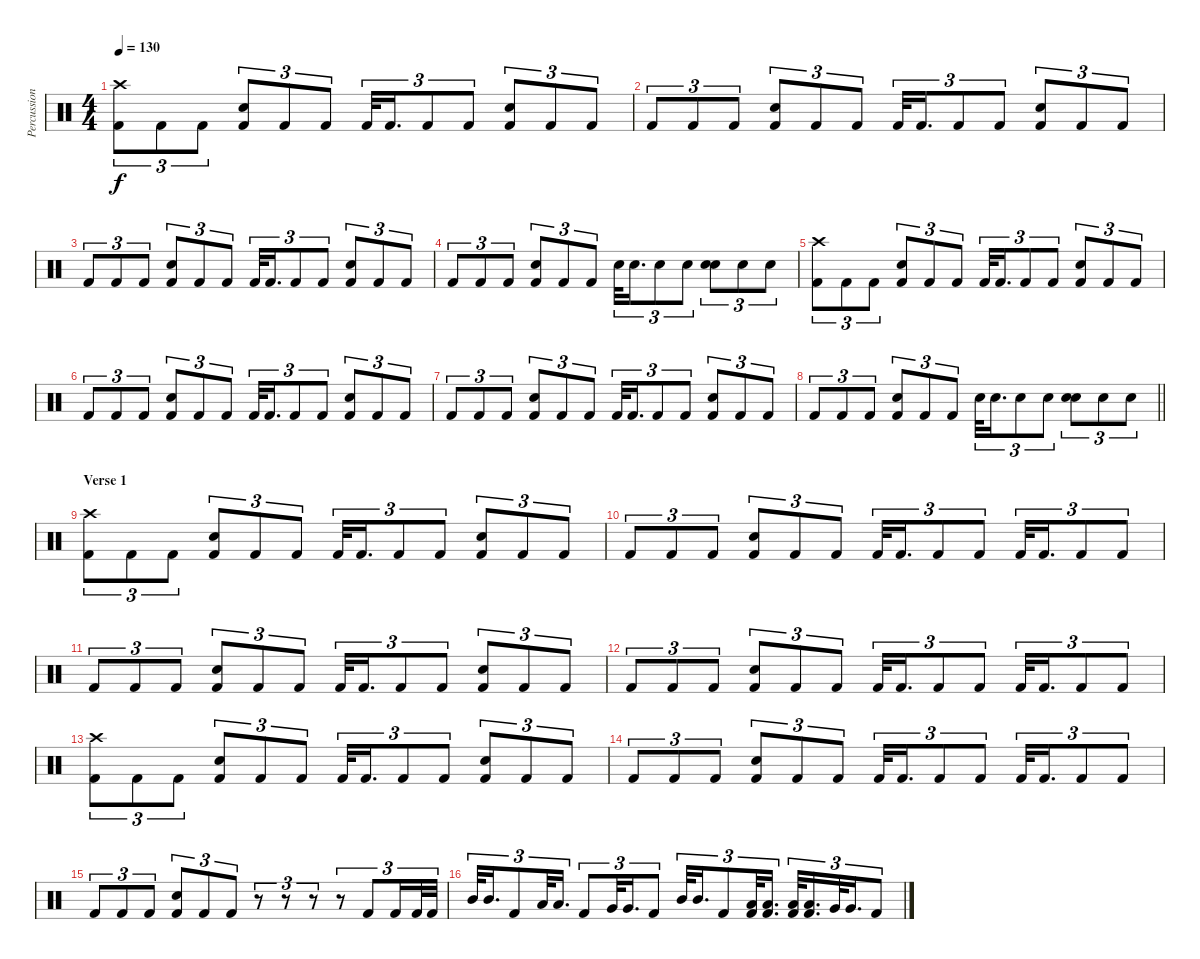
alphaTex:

\track ("Percussions" "Percussion") {instrument percussion}
\staff {score}
\articulation defaults
\ts (4 4)
\section ("" "")
\tempo 130
\clef neutral
\ks c
("Crash high (hit)" "Kick (hit) 2").8{tu (3 2) dy f} "Kick (hit) 2".8{tu (3 2)} "Kick (hit) 2".8{tu (3 2)} ("Electric Snare (hit)" "Kick (hit) 2").8{tu (3 2)} "Kick (hit) 2".8{tu (3 2)} "Kick (hit) 2".8{tu (3 2)} "Kick (hit) 2".32{tu (3 2)} "Kick (hit) 2".16{d tu (3 2)} "Kick (hit) 2".8{tu (3 2)} "Kick (hit) 2".8{tu (3 2)} ("Electric Snare (hit)" "Kick (hit) 2").8{tu (3 2)} "Kick (hit) 2".8{tu (3 2)} "Kick (hit) 2".8{tu (3 2)} |
"Kick (hit) 2".8{tu (3 2)} "Kick (hit) 2".8{tu (3 2)} "Kick (hit) 2".8{tu (3 2)} ("Electric Snare (hit)" "Kick (hit) 2").8{tu (3 2)} "Kick (hit) 2".8{tu (3 2)} "Kick (hit) 2".8{tu (3 2)} "Kick (hit) 2".32{tu (3 2)} "Kick (hit) 2".16{d tu (3 2)} "Kick (hit) 2".8{tu (3 2)} "Kick (hit) 2".8{tu (3 2)} ("Electric Snare (hit)" "Kick (hit) 2").8{tu (3 2)} "Kick (hit) 2".8{tu (3 2)} "Kick (hit) 2".8{tu (3 2)} |
"Kick (hit) 2".8{tu (3 2)} "Kick (hit) 2".8{tu (3 2)} "Kick (hit) 2".8{tu (3 2)} ("Electric Snare (hit)" "Kick (hit) 2").8{tu (3 2)} "Kick (hit) 2".8{tu (3 2)} "Kick (hit) 2".8{tu (3 2)} "Kick (hit) 2".32{tu (3 2)} "Kick (hit) 2".16{d tu (3 2)} "Kick (hit) 2".8{tu (3 2)} "Kick (hit) 2".8{tu (3 2)} ("Electric Snare (hit)" "Kick (hit) 2").8{tu (3 2)} "Kick (hit) 2".8{tu (3 2)} "Kick (hit) 2".8{tu (3 2)} |
"Kick (hit) 2".8{tu (3 2)} "Kick (hit) 2".8{tu (3 2)} "Kick (hit) 2".8{tu (3 2)} ("Electric Snare (hit)" "Kick (hit) 2").8{tu (3 2)} "Kick (hit) 2".8{tu (3 2)} "Kick (hit) 2".8{tu (3 2)} "Electric Snare (hit)".32{tu (3 2)} "Electric Snare (hit)".16{d tu (3 2)} "Electric Snare (hit)".8{tu (3 2)} "Electric Snare (hit)".8{tu (3 2)} ("Electric Snare (hit)" "Electric Snare (hit)").8{tu (3 2)} "Electric Snare (hit)".8{tu (3 2)} "Electric Snare (hit)".8{tu (3 2)} |
("Crash high (hit)" "Kick (hit) 2").8{tu (3 2)} "Kick (hit) 2".8{tu (3 2)} "Kick (hit) 2".8{tu (3 2)} ("Electric Snare (hit)" "Kick (hit) 2").8{tu (3 2)} "Kick (hit) 2".8{tu (3 2)} "Kick (hit) 2".8{tu (3 2)} "Kick (hit) 2".32{tu (3 2)} "Kick (hit) 2".16{d tu (3 2)} "Kick (hit) 2".8{tu (3 2)} "Kick (hit) 2".8{tu (3 2)} ("Electric Snare (hit)" "Kick (hit) 2").8{tu (3 2)} "Kick (hit) 2".8{tu (3 2)} "Kick (hit) 2".8{tu (3 2)} |
"Kick (hit) 2".8{tu (3 2)} "Kick (hit) 2".8{tu (3 2)} "Kick (hit) 2".8{tu (3 2)} ("Electric Snare (hit)" "Kick (hit) 2").8{tu (3 2)} "Kick (hit) 2".8{tu (3 2)} "Kick (hit) 2".8{tu (3 2)} "Kick (hit) 2".32{tu (3 2)} "Kick (hit) 2".16{d tu (3 2)} "Kick (hit) 2".8{tu (3 2)} "Kick (hit) 2".8{tu (3 2)} ("Electric Snare (hit)" "Kick (hit) 2").8{tu (3 2)} "Kick (hit) 2".8{tu (3 2)} "Kick (hit) 2".8{tu (3 2)} |
"Kick (hit) 2".8{tu (3 2)} "Kick (hit) 2".8{tu (3 2)} "Kick (hit) 2".8{tu (3 2)} ("Electric Snare (hit)" "Kick (hit) 2").8{tu (3 2)} "Kick (hit) 2".8{tu (3 2)} "Kick (hit) 2".8{tu (3 2)} "Kick (hit) 2".32{tu (3 2)} "Kick (hit) 2".16{d tu (3 2)} "Kick (hit) 2".8{tu (3 2)} "Kick (hit) 2".8{tu (3 2)} ("Electric Snare (hit)" "Kick (hit) 2").8{tu (3 2)} "Kick (hit) 2".8{tu (3 2)} "Kick (hit) 2".8{tu (3 2)} |
\barLineRight lightlight "Kick (hit) 2".8{tu (3 2)} "Kick (hit) 2".8{tu (3 2)} "Kick (hit) 2".8{tu (3 2)}
("Electric Snare (hit)" "Kick (hit) 2").8{tu (3 2)} "Kick (hit) 2".8{tu (3 2)} "Kick (hit) 2".8{tu (3 2)} "Electric Snare (hit)".32{tu (3 2)} "Electric Snare (hit)".16{d tu (3 2)} "Electric Snare (hit)".8{tu (3 2)} "Electric Snare (hit)".8{tu (3 2)} ("Electric Snare (hit)" "Electric Snare (hit)").8{tu (3 2)} "Electric Snare (hit)".8{tu (3 2)} "Electric Snare (hit)".8{tu (3 2)} |
\section ("" "Verse 1")
("Crash high (hit)" "Kick (hit) 2").8{tu (3 2)} "Kick (hit) 2".8{tu (3 2)} "Kick (hit) 2".8{tu (3 2)} ("Electric Snare (hit)" "Kick (hit) 2").8{tu (3 2)} "Kick (hit) 2".8{tu (3 2)} "Kick (hit) 2".8{tu (3 2)} "Kick (hit) 2".32{tu (3 2)} "Kick (hit) 2".16{d tu (3 2)} "Kick (hit) 2".8{tu (3 2)} "Kick (hit) 2".8{tu (3 2)} ("Electric Snare (hit)" "Kick (hit) 2").8{tu (3 2)} "Kick (hit) 2".8{tu (3 2)} "Kick (hit) 2".8{tu (3 2)} |
"Kick (hit) 2".8{tu (3 2)} "Kick (hit) 2".8{tu (3 2)} "Kick (hit) 2".8{tu (3 2)} ("Electric Snare (hit)" "Kick (hit) 2").8{tu (3 2)} "Kick (hit) 2".8{tu (3 2)} "Kick (hit) 2".8{tu (3 2)} "Kick (hit) 2".32{tu (3 2)} "Kick (hit) 2".16{d tu (3 2)} "Kick (hit) 2".8{tu (3 2)} "Kick (hit) 2".8{tu (3 2)} "Kick (hit) 2".32{tu (3 2)} "Kick (hit) 2".16{d tu (3 2)} "Kick (hit) 2".8{tu (3 2)} "Kick (hit) 2".8{tu (3 2)} |
"Kick (hit) 2".8{tu (3 2)} "Kick (hit) 2".8{tu (3 2)} "Kick (hit) 2".8{tu (3 2)} ("Electric Snare (hit)" "Kick (hit) 2").8{tu (3 2)} "Kick (hit) 2".8{tu (3 2)} "Kick (hit) 2".8{tu (3 2)} "Kick (hit) 2".32{tu (3 2)} "Kick (hit) 2".16{d tu (3 2)} "Kick (hit) 2".8{tu (3 2)} "Kick (hit) 2".8{tu (3 2)} ("Electric Snare (hit)" "Kick (hit) 2").8{tu (3 2)} "Kick (hit) 2".8{tu (3 2)} "Kick (hit) 2".8{tu (3 2)} |
"Kick (hit) 2".8{tu (3 2)} "Kick (hit) 2".8{tu (3 2)} "Kick (hit) 2".8{tu (3 2)} ("Electric Snare (hit)" "Kick (hit) 2").8{tu (3 2)} "Kick (hit) 2".8{tu (3 2)} "Kick (hit) 2".8{tu (3 2)} "Kick (hit) 2".32{tu (3 2)} "Kick (hit) 2".16{d tu (3 2)} "Kick (hit) 2".8{tu (3 2)} "Kick (hit) 2".8{tu (3 2)} "Kick (hit) 2".32{tu (3 2)} "Kick (hit) 2".16{d tu (3 2)} "Kick (hit) 2".8{tu (3 2)} "Kick (hit) 2".8{tu (3 2)} |
("Crash high (hit)" "Kick (hit) 2").8{tu (3 2)} "Kick (hit) 2".8{tu (3 2)} "Kick (hit) 2".8{tu (3 2)} ("Electric Snare (hit)" "Kick (hit) 2").8{tu (3 2)} "Kick (hit) 2".8{tu (3 2)} "Kick (hit) 2".8{tu (3 2)} "Kick (hit) 2".32{tu (3 2)} "Kick (hit) 2".16{d tu (3 2)} "Kick (hit) 2".8{tu (3 2)} "Kick (hit) 2".8{tu (3 2)} ("Electric Snare (hit)" "Kick (hit) 2").8{tu (3 2)} "Kick (hit) 2".8{tu (3 2)} "Kick (hit) 2".8{tu (3 2)} |
"Kick (hit) 2".8{tu (3 2)} "Kick (hit) 2".8{tu (3 2)} "Kick (hit) 2".8{tu (3 2)} ("Electric Snare (hit)" "Kick (hit) 2").8{tu (3 2)} "Kick (hit) 2".8{tu (3 2)} "Kick (hit) 2".8{tu (3 2)} "Kick (hit) 2".32{tu (3 2)} "Kick (hit) 2".16{d tu (3 2)} "Kick (hit) 2".8{tu (3 2)} "Kick (hit) 2".8{tu (3 2)} "Kick (hit) 2".32{tu (3 2)} "Kick (hit) 2".16{d tu (3 2)} "Kick (hit) 2".8{tu (3 2)} "Kick (hit) 2".8{tu (3 2)} |
"Kick (hit) 2".8{tu (3 2)} "Kick (hit) 2".8{tu (3 2)} "Kick (hit) 2".8{tu (3 2)} ("Electric Snare (hit)" "Kick (hit) 2").8{tu (3 2)} "Kick (hit) 2".8{tu (3 2)} "Kick (hit) 2".8{tu (3 2)} r.8{tu (3 2)} r.8{tu (3 2)} r.8{tu (3 2)} r.8{tu (3 2)} "Kick (hit) 2".8{tu (3 2)} "Kick (hit) 2".16{tu (3 2)} "Kick (hit) 2".32{tu (3 2)} "Kick (hit) 2".32{tu (3 2)} |
"Mid Tom (hit)".32{tu (3 2)} "Mid Tom (hit)".16{d tu (3 2)} "Kick (hit) 2".8{tu (3 2)} "Low Tom (hit)".32{tu (3 2)} "Low Tom (hit)".16{d tu (3 2)} "Kick (hit) 2".8{tu (3 2)} "Very Low Tom (hit)".32{tu (3 2)} "Very Low Tom (hit)".16{d tu (3 2)} "Kick (hit) 2".8{tu (3 2)} "Mid Tom (hit)".32{tu (3 2)} "Mid Tom (hit)".16{d tu (3 2)} "Kick (hit) 2".8{tu (3 2)} ("Low Tom (hit)" "Kick (hit) 2").32{tu (3 2)} ("Low Tom (hit)" "Kick (hit) 2").16{d tu (3 2)} ("Low Tom (hit)" "Kick (hit) 2").32{tu (3 2)} ("Low Tom (hit)" "Kick (hit) 2").16{d tu (3 2)} "Very Low Tom (hit)".32{tu (3 2)} "Very Low Tom (hit)".16{d tu (3 2)} "Kick (hit) 2".8{tu (3 2)}
